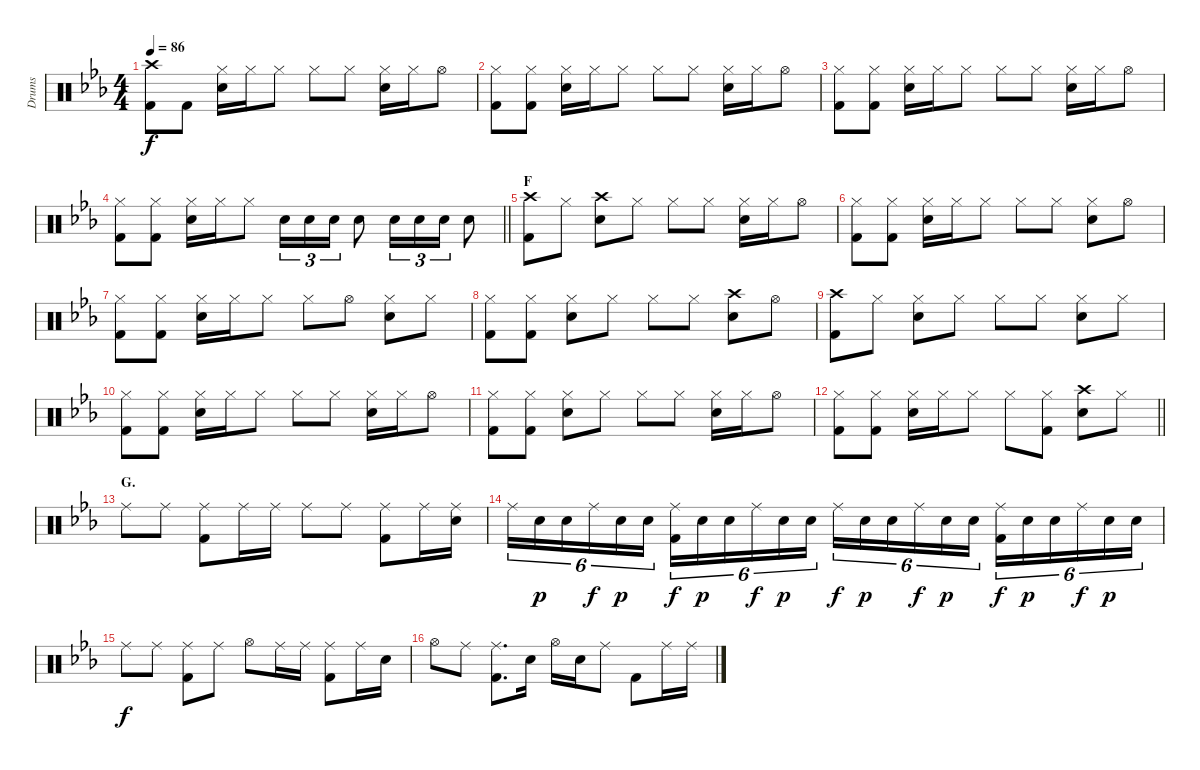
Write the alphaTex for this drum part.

\track ("Drums" "Drums") {instrument percussion}
\staff {score}
\articulation defaults
\ts (4 4)
\tempo 86
\clef neutral
\ks eb
("Crash high (hit)" "Kick (hit) 2").8{dy f} "Kick (hit) 2".8 ("Hi-Hat (closed)" "Snare (hit) 2").16 "Hi-Hat (closed)".16 "Hi-Hat (closed)".8 "Hi-Hat (closed)".8 "Hi-Hat (closed)".8 ("Hi-Hat (closed)" "Snare (hit) 2").16 "Hi-Hat (closed)".16 "Hi-Hat (open)".8 |
("Hi-Hat (closed)" "Kick (hit) 2").8 ("Hi-Hat (closed)" "Kick (hit) 2").8 ("Hi-Hat (closed)" "Snare (hit) 2").16 "Hi-Hat (closed)".16 "Hi-Hat (closed)".8 "Hi-Hat (closed)".8 "Hi-Hat (closed)".8 ("Hi-Hat (closed)" "Snare (hit) 2").16 "Hi-Hat (closed)".16 "Hi-Hat (open)".8 |
("Hi-Hat (closed)" "Kick (hit) 2").8 ("Hi-Hat (closed)" "Kick (hit) 2").8 ("Hi-Hat (closed)" "Snare (hit) 2").16 "Hi-Hat (closed)".16 "Hi-Hat (closed)".8 "Hi-Hat (closed)".8 "Hi-Hat (closed)".8 ("Hi-Hat (closed)" "Snare (hit) 2").16 "Hi-Hat (closed)".16 "Hi-Hat (open)".8 |
\barLineRight lightlight
("Hi-Hat (closed)" "Kick (hit) 2").8 ("Hi-Hat (closed)" "Kick (hit) 2").8 ("Hi-Hat (closed)" "Snare (hit) 2").16 "Hi-Hat (closed)".16 "Hi-Hat (closed)".8 "Snare (hit) 2".16{tu (3 2)} "Snare (hit) 2".16{tu (3 2)} "Snare (hit) 2".16{tu (3 2)} "Snare (hit) 2".8 "Snare (hit) 2".16{tu (3 2)} "Snare (hit) 2".16{tu (3 2)} "Snare (hit) 2".16{tu (3 2)} "Snare (hit) 2".8 |
\section ("" "F")
("Crash high (hit)" "Kick (hit) 2").8 "Hi-Hat (closed)".8 ("Crash high (hit)" "Snare (hit) 2").8 "Hi-Hat (closed)".8 "Hi-Hat (closed)".8 "Hi-Hat (closed)".8 ("Hi-Hat (closed)" "Snare (hit) 2").16 "Hi-Hat (closed)".16 "Hi-Hat (open)".8 |
("Hi-Hat (closed)" "Kick (hit) 2").8 ("Hi-Hat (closed)" "Kick (hit) 2").8 ("Hi-Hat (closed)" "Snare (hit) 2").16 "Hi-Hat (closed)".16 "Hi-Hat (closed)".8 "Hi-Hat (closed)".8 "Hi-Hat (closed)".8 ("Hi-Hat (closed)" "Snare (hit) 2").8 "Hi-Hat (open)".8 |
("Hi-Hat (closed)" "Kick (hit) 2").8 ("Hi-Hat (closed)" "Kick (hit) 2").8 ("Hi-Hat (closed)" "Snare (hit) 2").16 "Hi-Hat (closed)".16 "Hi-Hat (closed)".8 "Hi-Hat (closed)".8 "Hi-Hat (open)".8 ("Hi-Hat (closed)" "Snare (hit) 2").8 "Hi-Hat (closed)".8 |
("Hi-Hat (closed)" "Kick (hit) 2").8 ("Hi-Hat (closed)" "Kick (hit) 2").8 ("Hi-Hat (closed)" "Snare (hit) 2").8 "Hi-Hat (closed)".8 "Hi-Hat (closed)".8 "Hi-Hat (closed)".8 ("Crash high (hit)" "Snare (hit) 2").8 "Hi-Hat (open)".8 |
("Crash high (hit)" "Kick (hit) 2").8 "Hi-Hat (closed)".8 ("Hi-Hat (closed)" "Snare (hit) 2").8 "Hi-Hat (closed)".8 "Hi-Hat (closed)".8 "Hi-Hat (closed)".8 ("Hi-Hat (closed)" "Snare (hit) 2").8 "Hi-Hat (closed)".8 |
("Hi-Hat (closed)" "Kick (hit) 2").8 ("Hi-Hat (closed)" "Kick (hit) 2").8 ("Hi-Hat (closed)" "Snare (hit) 2").16 "Hi-Hat (closed)".16 "Hi-Hat (closed)".8 "Hi-Hat (closed)".8 "Hi-Hat (closed)".8 ("Hi-Hat (closed)" "Snare (hit) 2").16 "Hi-Hat (closed)".16 "Hi-Hat (open)".8 |
("Hi-Hat (closed)" "Kick (hit) 2").8 ("Hi-Hat (closed)" "Kick (hit) 2").8 ("Hi-Hat (closed)" "Snare (hit) 2").8 "Hi-Hat (closed)".8 "Hi-Hat (closed)".8 "Hi-Hat (closed)".8 ("Hi-Hat (closed)" "Snare (hit) 2").16 "Hi-Hat (closed)".16 "Hi-Hat (open)".8 |
\barLineRight lightlight
("Hi-Hat (closed)" "Kick (hit) 2").8 ("Hi-Hat (closed)" "Kick (hit) 2").8 ("Hi-Hat (closed)" "Snare (hit) 2").16 "Hi-Hat (closed)".16 "Hi-Hat (closed)".8 "Hi-Hat (closed)".8 ("Hi-Hat (closed)" "Kick (hit) 2").8 ("Crash high (hit)" "Snare (hit) 2").8 "Hi-Hat (closed)".8 |
\section ("" "G.")
"Ride (middle)".8 "Ride (middle)".8 ("Ride (middle)" "Kick (hit) 2").8 "Ride (middle)".16 "Ride (middle)".16 "Ride (middle)".8 "Ride (middle)".8 ("Ride (middle)" "Kick (hit) 2").8 "Ride (middle)".16 ("Ride (middle)" "Snare (hit) 2").16 |
"Ride (middle)".16{tu (6 4)} "Snare (hit) 2".16{tu (6 4) dy p} "Snare (hit) 2".16{tu (6 4)} "Ride (middle)".16{tu (6 4) dy f} "Snare (hit) 2".16{tu (6 4) dy p} "Snare (hit) 2".16{tu (6 4)} ("Ride (middle)" "Kick (hit) 2").16{tu (6 4) dy f} "Snare (hit) 2".16{tu (6 4) dy p} "Snare (hit) 2".16{tu (6 4)} "Ride (middle)".16{tu (6 4) dy f} "Snare (hit) 2".16{tu (6 4) dy p} "Snare (hit) 2".16{tu (6 4)} "Ride (middle)".16{tu (6 4) dy f} "Snare (hit) 2".16{tu (6 4) dy p} "Snare (hit) 2".16{tu (6 4)} "Ride (middle)".16{tu (6 4) dy f} "Snare (hit) 2".16{tu (6 4) dy p} "Snare (hit) 2".16{tu (6 4)} ("Ride (middle)" "Kick (hit) 2").16{tu (6 4) dy f} "Snare (hit) 2".16{tu (6 4) dy p} "Snare (hit) 2".16{tu (6 4)} "Ride (middle)".16{tu (6 4) dy f} "Snare (hit) 2".16{tu (6 4) dy p} "Snare (hit) 2".16{tu (6 4)} |
"Ride (middle)".8{dy f} "Ride (middle)".8 ("Ride (middle)" "Kick (hit) 2").8 "Ride (middle)".8 "Hi-Hat (open)".8 "Ride (middle)".16 "Ride (middle)".16 ("Ride (middle)" "Kick (hit) 2").8 "Ride (middle)".16 "Snare (hit) 2".16 |
"Hi-Hat (open)".8 "Ride (middle)".8 ("Ride (middle)" "Kick (hit) 2").8{d} "Snare (hit) 2".16 "Hi-Hat (open)".16 "Snare (hit) 2".16 "Ride (middle)".8 "Kick (hit) 2".8 "Ride (middle)".16 "Ride (middle)".16
